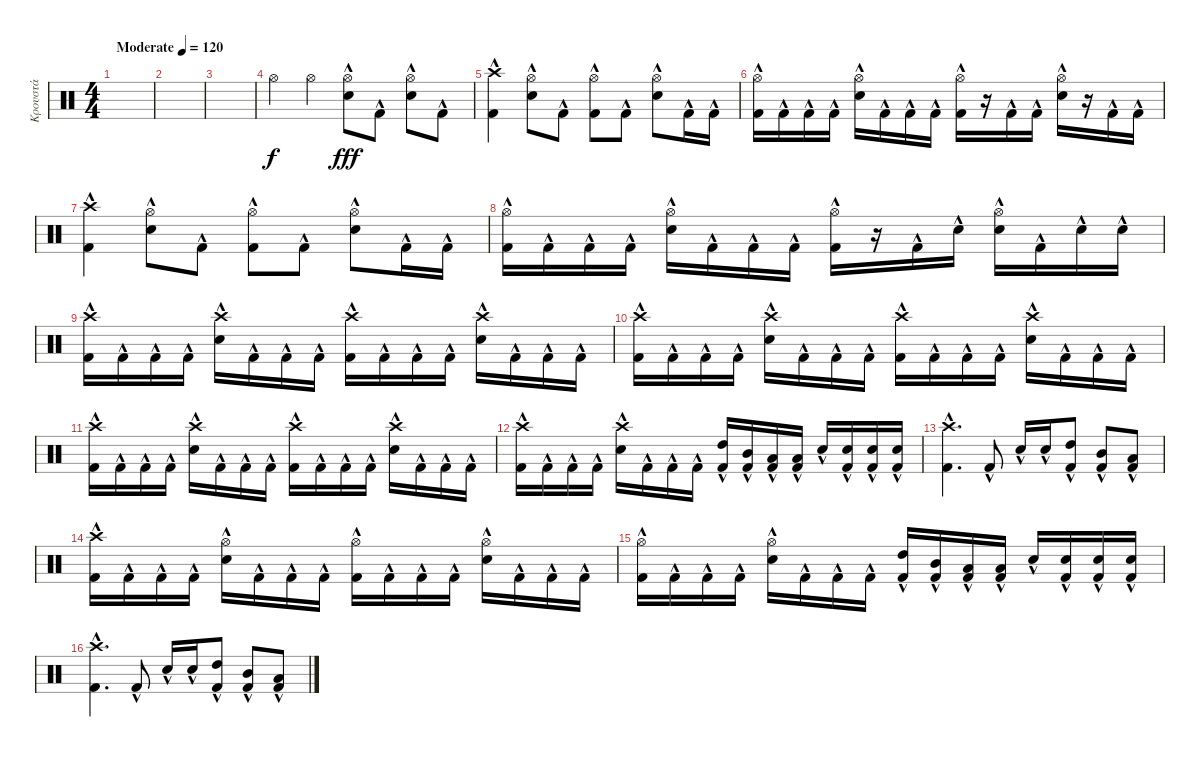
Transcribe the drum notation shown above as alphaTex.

\track ("Κρουστά" "Κρουστά") {instrument percussion}
\staff {score}
\articulation defaults
\ts (4 4)
\tempo (120 "Moderate")
\clef neutral
\ks c
|
|
|
"Hi-Hat (open)".4 "Hi-Hat (open)".4 ("Hi-Hat (open)" "Electric Snare (hit)"{hac}).8{dy fff} "Kick (hit) 2"{hac}.8 ("Hi-Hat (open)" "Electric Snare (hit)"{hac}).8 "Kick (hit) 2"{hac}.8 |
("Kick (hit) 2"{hac} "Crash high (hit)").4 ("Electric Snare (hit)"{hac} "Hi-Hat (open)").8 "Kick (hit) 2"{hac}.8 ("Kick (hit) 2"{hac} "Hi-Hat (open)").8 "Kick (hit) 2"{hac}.8 ("Electric Snare (hit)"{hac} "Hi-Hat (open)").8 "Kick (hit) 2"{hac}.16 "Kick (hit) 2"{hac}.16 |
("Kick (hit) 2"{hac} "Hi-Hat (open)").16 "Kick (hit) 2"{hac}.16 "Kick (hit) 2"{hac}.16 "Kick (hit) 2"{hac}.16 ("Electric Snare (hit)"{hac} "Hi-Hat (open)").16 "Kick (hit) 2"{hac}.16 "Kick (hit) 2"{hac}.16 "Kick (hit) 2"{hac}.16 ("Kick (hit) 2"{hac} "Hi-Hat (open)").16 r.16 "Kick (hit) 2"{hac}.16 "Kick (hit) 2"{hac}.16 ("Electric Snare (hit)"{hac} "Hi-Hat (open)").16 r.16 "Kick (hit) 2"{hac}.16 "Kick (hit) 2"{hac}.16 |
("Kick (hit) 2"{hac} "Crash high (hit)").4 ("Electric Snare (hit)"{hac} "Hi-Hat (open)").8 "Kick (hit) 2"{hac}.8 ("Kick (hit) 2"{hac} "Hi-Hat (open)").8 "Kick (hit) 2"{hac}.8 ("Electric Snare (hit)"{hac} "Hi-Hat (open)").8 "Kick (hit) 2"{hac}.16 "Kick (hit) 2"{hac}.16 |
("Kick (hit) 2"{hac} "Hi-Hat (open)").16 "Kick (hit) 2"{hac}.16 "Kick (hit) 2"{hac}.16 "Kick (hit) 2"{hac}.16 ("Electric Snare (hit)"{hac} "Hi-Hat (open)").16 "Kick (hit) 2"{hac}.16 "Kick (hit) 2"{hac}.16 "Kick (hit) 2"{hac}.16 ("Kick (hit) 2"{hac} "Hi-Hat (open)").16 r.16 "Kick (hit) 2"{hac}.16 "Electric Snare (hit)"{hac}.16 ("Electric Snare (hit)"{hac} "Hi-Hat (open)").16 "Kick (hit) 2"{hac}.16 "Electric Snare (hit)"{hac}.16 "Electric Snare (hit)"{hac}.16 |
("Kick (hit) 2"{hac} "Crash high (hit)").16 "Kick (hit) 2"{hac}.16 "Kick (hit) 2"{hac}.16 "Kick (hit) 2"{hac}.16 ("Electric Snare (hit)"{hac} "Crash high (hit)").16 "Kick (hit) 2"{hac}.16 "Kick (hit) 2"{hac}.16 "Kick (hit) 2"{hac}.16 ("Kick (hit) 2"{hac} "Crash high (hit)").16 "Kick (hit) 2"{hac}.16 "Kick (hit) 2"{hac}.16 "Kick (hit) 2"{hac}.16 ("Electric Snare (hit)"{hac} "Crash high (hit)").16 "Kick (hit) 2"{hac}.16 "Kick (hit) 2"{hac}.16 "Kick (hit) 2"{hac}.16 |
("Kick (hit) 2"{hac} "Crash high (hit)").16 "Kick (hit) 2"{hac}.16 "Kick (hit) 2"{hac}.16 "Kick (hit) 2"{hac}.16 ("Electric Snare (hit)"{hac} "Crash high (hit)").16 "Kick (hit) 2"{hac}.16 "Kick (hit) 2"{hac}.16 "Kick (hit) 2"{hac}.16 ("Kick (hit) 2"{hac} "Crash high (hit)").16 "Kick (hit) 2"{hac}.16 "Kick (hit) 2"{hac}.16 "Kick (hit) 2"{hac}.16 ("Electric Snare (hit)"{hac} "Crash high (hit)").16 "Kick (hit) 2"{hac}.16 "Kick (hit) 2"{hac}.16 "Kick (hit) 2"{hac}.16 |
("Kick (hit) 2"{hac} "Crash high (hit)").16 "Kick (hit) 2"{hac}.16 "Kick (hit) 2"{hac}.16 "Kick (hit) 2"{hac}.16 ("Electric Snare (hit)"{hac} "Crash high (hit)").16 "Kick (hit) 2"{hac}.16 "Kick (hit) 2"{hac}.16 "Kick (hit) 2"{hac}.16 ("Kick (hit) 2"{hac} "Crash high (hit)").16 "Kick (hit) 2"{hac}.16 "Kick (hit) 2"{hac}.16 "Kick (hit) 2"{hac}.16 ("Electric Snare (hit)"{hac} "Crash high (hit)").16 "Kick (hit) 2"{hac}.16 "Kick (hit) 2"{hac}.16 "Kick (hit) 2"{hac}.16 |
("Kick (hit) 2"{hac} "Crash high (hit)").16 "Kick (hit) 2"{hac}.16 "Kick (hit) 2"{hac}.16 "Kick (hit) 2"{hac}.16 ("Electric Snare (hit)"{hac} "Crash high (hit)").16 "Kick (hit) 2"{hac}.16 "Kick (hit) 2"{hac}.16 "Kick (hit) 2"{hac}.16 ("Kick (hit) 2"{hac} "High Tom (hit)").16 ("Kick (hit) 2"{hac} "Mid Tom (hit)").16 ("Kick (hit) 2"{hac} "Low Tom (hit)").16 ("Kick (hit) 2"{hac} "Low Tom (hit)").16 "Electric Snare (hit)"{hac}.16 ("Kick (hit) 2"{hac} "Electric Snare (hit)").16 ("Kick (hit) 2"{hac} "Electric Snare (hit)").16 ("Kick (hit) 2"{hac} "Electric Snare (hit)").16 |
("Kick (hit) 2"{hac} "Crash high (hit)").4{d} "Kick (hit) 2"{hac}.8 "Electric Snare (hit)"{hac}.16 "Electric Snare (hit)"{hac}.16 ("Kick (hit) 2"{hac} "High Tom (hit)").8 ("Kick (hit) 2"{hac} "Mid Tom (hit)").8 ("Kick (hit) 2"{hac} "Low Tom (hit)").8 |
("Kick (hit) 2"{hac} "Crash high (hit)").16 "Kick (hit) 2"{hac}.16 "Kick (hit) 2"{hac}.16 "Kick (hit) 2"{hac}.16 ("Electric Snare (hit)"{hac} "Hi-Hat (open)").16 "Kick (hit) 2"{hac}.16 "Kick (hit) 2"{hac}.16 "Kick (hit) 2"{hac}.16 ("Kick (hit) 2"{hac} "Hi-Hat (open)").16 "Kick (hit) 2"{hac}.16 "Kick (hit) 2"{hac}.16 "Kick (hit) 2"{hac}.16 ("Electric Snare (hit)"{hac} "Hi-Hat (open)").16 "Kick (hit) 2"{hac}.16 "Kick (hit) 2"{hac}.16 "Kick (hit) 2"{hac}.16 |
("Kick (hit) 2"{hac} "Hi-Hat (open)").16 "Kick (hit) 2"{hac}.16 "Kick (hit) 2"{hac}.16 "Kick (hit) 2"{hac}.16 ("Electric Snare (hit)"{hac} "Hi-Hat (open)").16 "Kick (hit) 2"{hac}.16 "Kick (hit) 2"{hac}.16 "Kick (hit) 2"{hac}.16 ("Kick (hit) 2"{hac} "High Tom (hit)").16 ("Kick (hit) 2"{hac} "Mid Tom (hit)").16 ("Kick (hit) 2"{hac} "Low Tom (hit)").16 ("Kick (hit) 2"{hac} "Low Tom (hit)").16 "Electric Snare (hit)"{hac}.16 ("Kick (hit) 2"{hac} "Electric Snare (hit)").16 ("Kick (hit) 2"{hac} "Electric Snare (hit)").16 ("Kick (hit) 2"{hac} "Electric Snare (hit)").16 |
("Kick (hit) 2"{hac} "Crash high (hit)").4{d} "Kick (hit) 2"{hac}.8 "Electric Snare (hit)"{hac}.16 "Electric Snare (hit)"{hac}.16 ("Kick (hit) 2"{hac} "High Tom (hit)").8 ("Kick (hit) 2"{hac} "Mid Tom (hit)").8 ("Kick (hit) 2"{hac} "Low Tom (hit)").8
